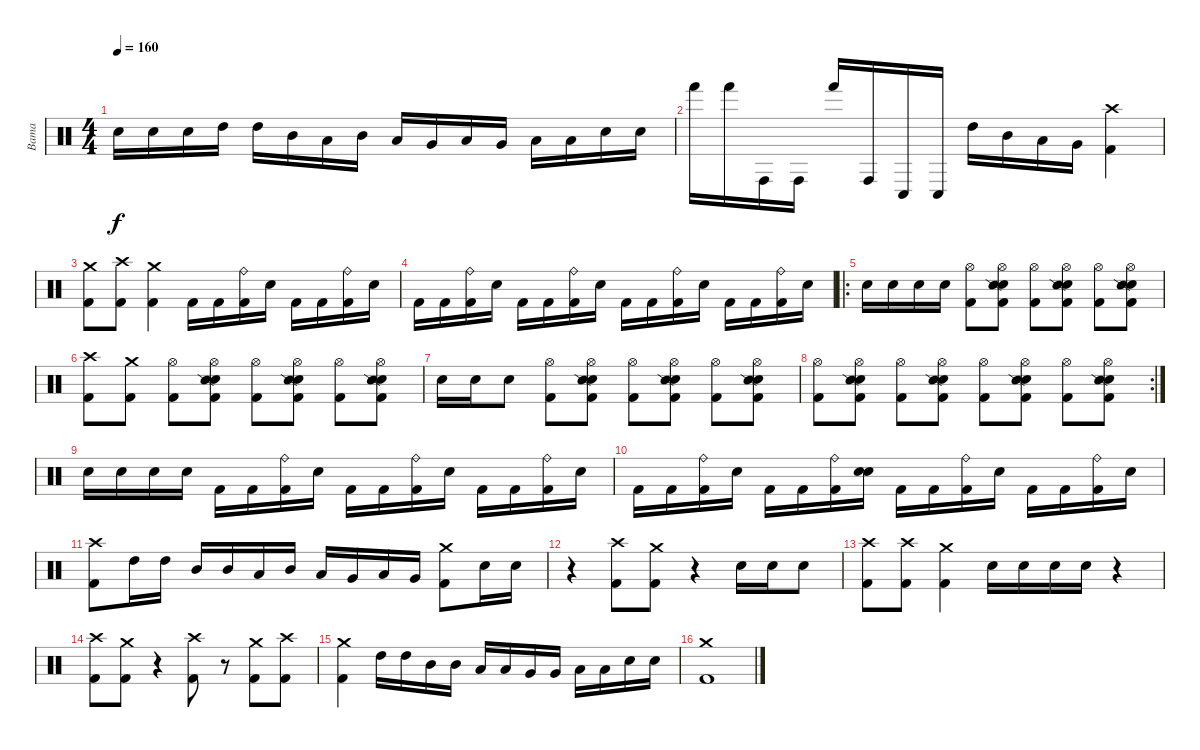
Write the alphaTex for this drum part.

\track ("Bama" "Bama") {instrument percussion}
\staff {score}
\articulation defaults
\ts (4 4)
\tempo 160
\clef neutral
\ks c "Electric Snare (hit)".16{dy f} "Electric Snare (hit)".16 "Electric Snare (hit)".16 "High Tom (hit)".16 "High Tom (hit)".16 "Mid Tom (hit)".16 "Low Tom (hit)".16 "Mid Tom (hit)".16 "Low Tom (hit)".16 "Very Low Tom (hit)".16 "Low Tom (hit)".16 "Very Low Tom (hit)".16 "Low Floor Tom (hit)".16 "Low Floor Tom (hit)".16 "Electric Snare (hit)".16 "Electric Snare (hit)".16
|
"Hand (hit)".16 "Hand (hit)".16 "Conga high (hit)".16 "Conga high (hit)".16 "Hand (hit)".16 "Conga high (hit)".16 "Conga low (hit)".16 "Conga low (hit)".16 "High Tom (hit)".16 "Mid Tom (hit)".16 "Low Tom (hit)".16 "Very Low Tom (hit)".16 ("Crash high (hit)" "Kick (hit) 2").4 |
("Crash medium (hit)" "Kick (hit) 2").8 ("Crash high (hit)" "Kick (hit) 2").8 ("Crash medium (hit)" "Kick (hit) 2").4 "Kick (hit) 2".16 "Kick (hit) 2".16 ("Ride (bell)" "Kick (hit) 2").16 "Electric Snare (hit)".16 "Kick (hit) 2".16 "Kick (hit) 2".16 ("Ride (bell)" "Kick (hit) 2").16 "Electric Snare (hit)".16 |
"Kick (hit) 2".16 "Kick (hit) 2".16 ("Ride (bell)" "Kick (hit) 2").16 "Electric Snare (hit)".16 "Kick (hit) 2".16 "Kick (hit) 2".16 ("Ride (bell)" "Kick (hit) 2").16 "Electric Snare (hit)".16 "Kick (hit) 2".16 "Kick (hit) 2".16 ("Ride (bell)" "Kick (hit) 2").16 "Electric Snare (hit)".16 "Kick (hit) 2".16 "Kick (hit) 2".16 ("Ride (bell)" "Kick (hit) 2").16 "Electric Snare (hit)".16 |
\ro "Electric Snare (hit)".16 "Electric Snare (hit)".16 "Electric Snare (hit)".16 "Electric Snare (hit)".16
("Hi-Hat (open)" "Kick (hit) 2").8 ("Hi-Hat (open)" "Electric Snare (hit)" "Snare (side stick) 2" "Kick (hit) 2").8 ("Hi-Hat (open)" "Kick (hit) 2").8 ("Hi-Hat (open)" "Electric Snare (hit)" "Snare (side stick) 2" "Kick (hit) 2").8 ("Hi-Hat (open)" "Kick (hit) 2").8 ("Hi-Hat (open)" "Electric Snare (hit)" "Snare (side stick) 2" "Kick (hit) 2").8 |
("Crash high (hit)" "Kick (hit) 2").8 ("Crash medium (hit)" "Kick (hit) 2").8 ("Hi-Hat (open)" "Kick (hit) 2").8 ("Hi-Hat (open)" "Electric Snare (hit)" "Snare (side stick) 2" "Kick (hit) 2").8 ("Hi-Hat (open)" "Kick (hit) 2").8 ("Hi-Hat (open)" "Electric Snare (hit)" "Snare (side stick) 2" "Kick (hit) 2").8 ("Hi-Hat (open)" "Kick (hit) 2").8 ("Hi-Hat (open)" "Electric Snare (hit)" "Snare (side stick) 2" "Kick (hit) 2").8 |
"Electric Snare (hit)".16 "Electric Snare (hit)".16 "Electric Snare (hit)".8 ("Hi-Hat (open)" "Kick (hit) 2").8 ("Hi-Hat (open)" "Electric Snare (hit)" "Snare (side stick) 2" "Kick (hit) 2").8 ("Hi-Hat (open)" "Kick (hit) 2").8 ("Hi-Hat (open)" "Electric Snare (hit)" "Snare (side stick) 2" "Kick (hit) 2").8 ("Hi-Hat (open)" "Kick (hit) 2").8 ("Hi-Hat (open)" "Electric Snare (hit)" "Snare (side stick) 2" "Kick (hit) 2").8 |
\rc 2
("Hi-Hat (open)" "Kick (hit) 2").8 ("Hi-Hat (open)" "Electric Snare (hit)" "Snare (side stick) 2" "Kick (hit) 2").8 ("Hi-Hat (open)" "Kick (hit) 2").8 ("Hi-Hat (open)" "Electric Snare (hit)" "Snare (side stick) 2" "Kick (hit) 2").8 ("Hi-Hat (open)" "Kick (hit) 2").8 ("Hi-Hat (open)" "Electric Snare (hit)" "Snare (side stick) 2" "Kick (hit) 2").8 ("Hi-Hat (open)" "Kick (hit) 2").8 ("Hi-Hat (open)" "Electric Snare (hit)" "Snare (side stick) 2" "Kick (hit) 2").8 |
"Electric Snare (hit)".16 "Electric Snare (hit)".16 "Electric Snare (hit)".16 "Electric Snare (hit)".16 "Kick (hit) 2".16 "Kick (hit) 2".16 ("Ride (bell)" "Kick (hit) 2").16 "Electric Snare (hit)".16 "Kick (hit) 2".16 "Kick (hit) 2".16 ("Ride (bell)" "Kick (hit) 2").16 "Electric Snare (hit)".16 "Kick (hit) 2".16 "Kick (hit) 2".16 ("Ride (bell)" "Kick (hit) 2").16 "Electric Snare (hit)".16 |
"Kick (hit) 2".16 "Kick (hit) 2".16 ("Ride (bell)" "Kick (hit) 2").16 "Electric Snare (hit)".16 "Kick (hit) 2".16 "Kick (hit) 2".16 ("Ride (bell)" "Kick (hit) 2").16 ("Snare (hit)" "Electric Snare (hit)").16 "Kick (hit) 2".16 "Kick (hit) 2".16 ("Ride (bell)" "Kick (hit) 2").16 "Electric Snare (hit)".16 "Kick (hit) 2".16 "Kick (hit) 2".16 ("Ride (bell)" "Kick (hit) 2").16 "Electric Snare (hit)".16 |
("Crash high (hit)" "Kick (hit) 2").8 "High Tom (hit)".16 "High Tom (hit)".16 "Mid Tom (hit)".16 "Mid Tom (hit)".16 "Low Tom (hit)".16 "Mid Tom (hit)".16 "Low Tom (hit)".16 "Very Low Tom (hit)".16 "Low Tom (hit)".16 "Very Low Tom (hit)".16 ("Crash medium (hit)" "Kick (hit) 2").8 "Electric Snare (hit)".16 "Electric Snare (hit)".16 |
r.4 ("Crash high (hit)" "Kick (hit) 2").8 ("Crash medium (hit)" "Kick (hit) 2").8 r.4 "Electric Snare (hit)".16 "Electric Snare (hit)".16 "Electric Snare (hit)".8 |
("Crash high (hit)" "Kick (hit) 2").8 ("Crash high (hit)" "Kick (hit) 2").8 ("Crash medium (hit)" "Kick (hit) 2").4 "Electric Snare (hit)".16 "Electric Snare (hit)".16 "Electric Snare (hit)".16 "Electric Snare (hit)".16 r.4 |
("Crash high (hit)" "Kick (hit) 2").8 ("Crash medium (hit)" "Kick (hit) 2").8 r.4 ("Crash high (hit)" "Kick (hit) 2").8 r.8 ("Crash medium (hit)" "Kick (hit) 2").8 ("Crash high (hit)" "Kick (hit) 2").8 |
("Crash medium (hit)" "Kick (hit) 2").4 "High Tom (hit)".16 "High Tom (hit)".16 "Mid Tom (hit)".16 "Mid Tom (hit)".16 "Low Tom (hit)".16 "Low Tom (hit)".16 "Very Low Tom (hit)".16 "Very Low Tom (hit)".16 "Low Floor Tom (hit)".16 "Low Floor Tom (hit)".16 "Electric Snare (hit)".16 "Electric Snare (hit)".16 |
("Crash medium (hit)" "Kick (hit) 2").1
